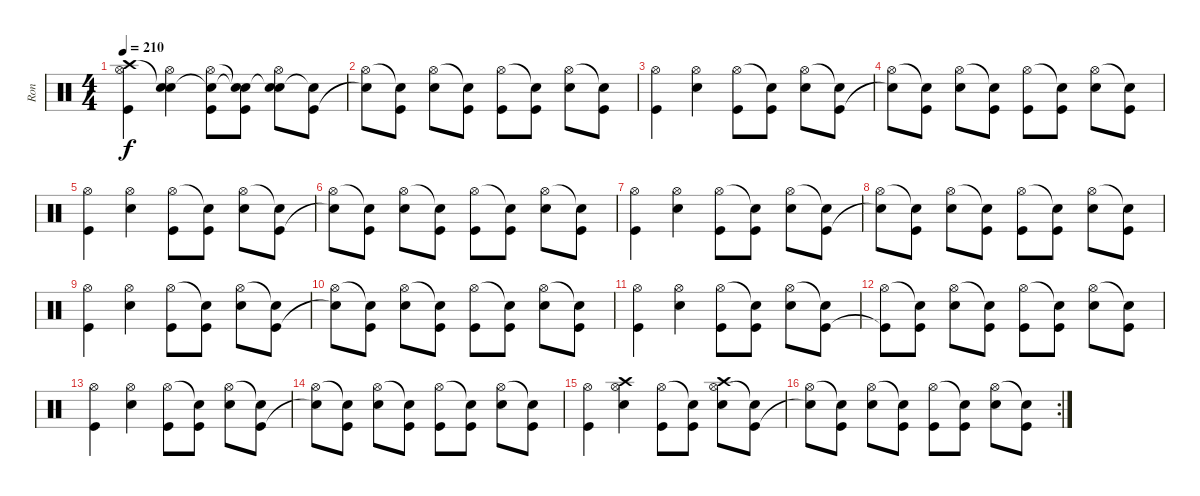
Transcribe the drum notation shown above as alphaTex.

\track ("Ron" "Ron") {instrument percussion}
\staff {score}
\articulation defaults
\ts (4 4)
\tempo 210
\clef neutral
\ks c
("Crash high (hit)" "Hi-Hat (open)" "Kick (hit)").4{dy f} ("Snare (hit)"{t} "Hi-Hat (open)" "Electric Snare (hit)").4 ("Snare (hit)"{t} "Hi-Hat (open)" "Kick (hit)").8 ("Snare (hit)"{t} "Snare (hit)"{t} "Kick (hit)").8 ("Snare (hit)"{t} "Hi-Hat (open)" "Electric Snare (hit)").8 ("Snare (hit)"{t} "Kick (hit)").8 |
("Hi-Hat (open)" "Snare (hit)"{t}).8 ("Snare (hit)"{t} "Kick (hit)").8 ("Hi-Hat (open)" "Electric Snare (hit)").8 ("Snare (hit)"{t} "Kick (hit)").8 ("Hi-Hat (open)" "Kick (hit)").8 ("Snare (hit)"{t} "Kick (hit)").8 ("Hi-Hat (open)" "Electric Snare (hit)").8 ("Snare (hit)"{t} "Kick (hit)").8 |
("Hi-Hat (open)" "Kick (hit)").4 ("Hi-Hat (open)" "Electric Snare (hit)").4 ("Hi-Hat (open)" "Kick (hit)").8 ("Snare (hit)"{t} "Kick (hit)").8 ("Hi-Hat (open)" "Electric Snare (hit)").8 ("Snare (hit)"{t} "Kick (hit)").8 |
("Hi-Hat (open)" "Snare (hit)"{t}).8 ("Snare (hit)"{t} "Kick (hit)").8 ("Hi-Hat (open)" "Electric Snare (hit)").8 ("Snare (hit)"{t} "Kick (hit)").8 ("Hi-Hat (open)" "Kick (hit)").8 ("Snare (hit)"{t} "Kick (hit)").8 ("Hi-Hat (open)" "Electric Snare (hit)").8 ("Snare (hit)"{t} "Kick (hit)").8 |
("Hi-Hat (open)" "Kick (hit)").4 ("Hi-Hat (open)" "Electric Snare (hit)").4 ("Hi-Hat (open)" "Kick (hit)").8 ("Snare (hit)"{t} "Kick (hit)").8 ("Hi-Hat (open)" "Electric Snare (hit)").8 ("Snare (hit)"{t} "Kick (hit)").8 |
("Hi-Hat (open)" "Snare (hit)"{t}).8 ("Snare (hit)"{t} "Kick (hit)").8 ("Hi-Hat (open)" "Electric Snare (hit)").8 ("Snare (hit)"{t} "Kick (hit)").8 ("Hi-Hat (open)" "Kick (hit)").8 ("Snare (hit)"{t} "Kick (hit)").8 ("Hi-Hat (open)" "Electric Snare (hit)").8 ("Snare (hit)"{t} "Kick (hit)").8 |
("Hi-Hat (open)" "Kick (hit)").4 ("Hi-Hat (open)" "Electric Snare (hit)").4 ("Hi-Hat (open)" "Kick (hit)").8 ("Snare (hit)"{t} "Kick (hit)").8 ("Hi-Hat (open)" "Electric Snare (hit)").8 ("Snare (hit)"{t} "Kick (hit)").8 |
("Hi-Hat (open)" "Snare (hit)"{t}).8 ("Snare (hit)"{t} "Kick (hit)").8 ("Hi-Hat (open)" "Electric Snare (hit)").8 ("Snare (hit)"{t} "Kick (hit)").8 ("Hi-Hat (open)" "Kick (hit)").8 ("Snare (hit)"{t} "Kick (hit)").8 ("Hi-Hat (open)" "Electric Snare (hit)").8 ("Snare (hit)"{t} "Kick (hit)").8 |
("Hi-Hat (open)" "Kick (hit)").4 ("Hi-Hat (open)" "Electric Snare (hit)").4 ("Hi-Hat (open)" "Kick (hit)").8 ("Snare (hit)"{t} "Kick (hit)").8 ("Hi-Hat (open)" "Electric Snare (hit)").8 ("Snare (hit)"{t} "Kick (hit)").8 |
("Hi-Hat (open)" "Snare (hit)"{t}).8 ("Snare (hit)"{t} "Kick (hit)").8 ("Hi-Hat (open)" "Electric Snare (hit)").8 ("Snare (hit)"{t} "Kick (hit)").8 ("Hi-Hat (open)" "Kick (hit)").8 ("Snare (hit)"{t} "Kick (hit)").8 ("Hi-Hat (open)" "Electric Snare (hit)").8 ("Snare (hit)"{t} "Kick (hit)").8 |
("Hi-Hat (open)" "Kick (hit)").4 ("Hi-Hat (open)" "Electric Snare (hit)").4 ("Hi-Hat (open)" "Kick (hit)").8 ("Snare (hit)"{t} "Kick (hit)").8 ("Hi-Hat (open)" "Electric Snare (hit)").8 ("Snare (hit)"{t} "Kick (hit)").8 |
("Hi-Hat (open)" "Kick (hit)"{t}).8 ("Snare (hit)"{t} "Kick (hit)").8 ("Hi-Hat (open)" "Electric Snare (hit)").8 ("Snare (hit)"{t} "Kick (hit)").8 ("Hi-Hat (open)" "Kick (hit)").8 ("Snare (hit)"{t} "Kick (hit)").8 ("Hi-Hat (open)" "Electric Snare (hit)").8 ("Snare (hit)"{t} "Kick (hit)").8 |
("Hi-Hat (open)" "Kick (hit)").4 ("Hi-Hat (open)" "Electric Snare (hit)").4 ("Hi-Hat (open)" "Kick (hit)").8 ("Snare (hit)"{t} "Kick (hit)").8 ("Hi-Hat (open)" "Electric Snare (hit)").8 ("Snare (hit)"{t} "Kick (hit)").8 |
("Hi-Hat (open)" "Snare (hit)"{t}).8 ("Snare (hit)"{t} "Kick (hit)").8 ("Hi-Hat (open)" "Electric Snare (hit)").8 ("Snare (hit)"{t} "Kick (hit)").8 ("Hi-Hat (open)" "Kick (hit)").8 ("Snare (hit)"{t} "Kick (hit)").8 ("Hi-Hat (open)" "Electric Snare (hit)").8 ("Snare (hit)"{t} "Kick (hit)").8 |
("Hi-Hat (open)" "Kick (hit)").4 ("Hi-Hat (open)" "Crash high (hit)" "Electric Snare (hit)").4 ("Hi-Hat (open)" "Kick (hit)").8 ("Snare (hit)"{t} "Kick (hit)").8 ("Hi-Hat (open)" "Crash high (hit)" "Electric Snare (hit)").8 ("Snare (hit)"{t} "Kick (hit)").8 |
\rc 2
("Hi-Hat (open)" "Snare (hit)"{t}).8 ("Snare (hit)"{t} "Kick (hit)").8 ("Hi-Hat (open)" "Electric Snare (hit)").8 ("Snare (hit)"{t} "Kick (hit)").8 ("Hi-Hat (open)" "Kick (hit)").8 ("Snare (hit)"{t} "Kick (hit)").8 ("Hi-Hat (open)" "Electric Snare (hit)").8 ("Snare (hit)"{t} "Kick (hit)").8
